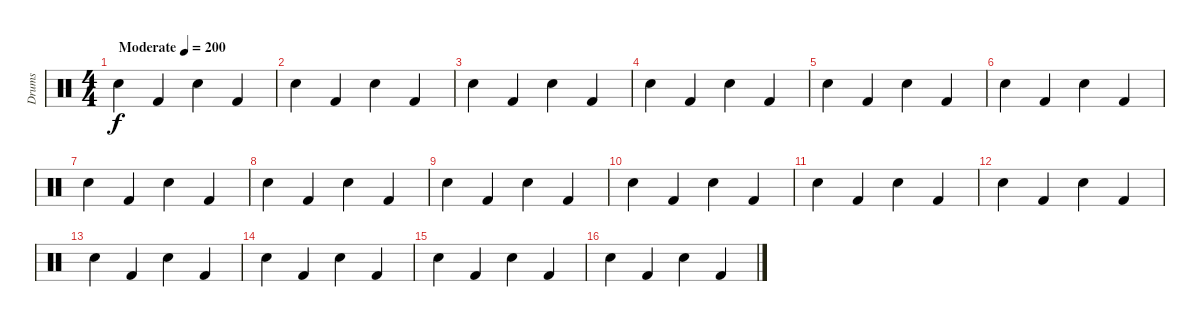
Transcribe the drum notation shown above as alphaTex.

\track ("Drums" "Drums") {instrument percussion}
\staff {score}
\articulation defaults
\ts (4 4)
\tempo (200 "Moderate")
\clef neutral
\ks c "Snare (hit) 2".4{dy f} "Kick (hit) 2".4 "Snare (hit) 2".4 "Kick (hit) 2".4
|
"Snare (hit) 2".4 "Kick (hit) 2".4 "Snare (hit) 2".4 "Kick (hit) 2".4 |
"Snare (hit) 2".4 "Kick (hit) 2".4 "Snare (hit) 2".4 "Kick (hit) 2".4 |
"Snare (hit) 2".4 "Kick (hit) 2".4 "Snare (hit) 2".4 "Kick (hit) 2".4 |
"Snare (hit) 2".4 "Kick (hit) 2".4 "Snare (hit) 2".4 "Kick (hit) 2".4 |
"Snare (hit) 2".4 "Kick (hit) 2".4 "Snare (hit) 2".4 "Kick (hit) 2".4 |
"Snare (hit) 2".4 "Kick (hit) 2".4 "Snare (hit) 2".4 "Kick (hit) 2".4 |
"Snare (hit) 2".4 "Kick (hit) 2".4 "Snare (hit) 2".4 "Kick (hit) 2".4 |
"Snare (hit) 2".4 "Kick (hit) 2".4 "Snare (hit) 2".4 "Kick (hit) 2".4 |
"Snare (hit) 2".4 "Kick (hit) 2".4 "Snare (hit) 2".4 "Kick (hit) 2".4 |
"Snare (hit) 2".4 "Kick (hit) 2".4 "Snare (hit) 2".4 "Kick (hit) 2".4 |
"Snare (hit) 2".4 "Kick (hit) 2".4 "Snare (hit) 2".4 "Kick (hit) 2".4 |
"Snare (hit) 2".4 "Kick (hit) 2".4 "Snare (hit) 2".4 "Kick (hit) 2".4 |
"Snare (hit) 2".4 "Kick (hit) 2".4 "Snare (hit) 2".4 "Kick (hit) 2".4 |
"Snare (hit) 2".4 "Kick (hit) 2".4 "Snare (hit) 2".4 "Kick (hit) 2".4 |
"Snare (hit) 2".4 "Kick (hit) 2".4 "Snare (hit) 2".4 "Kick (hit) 2".4
